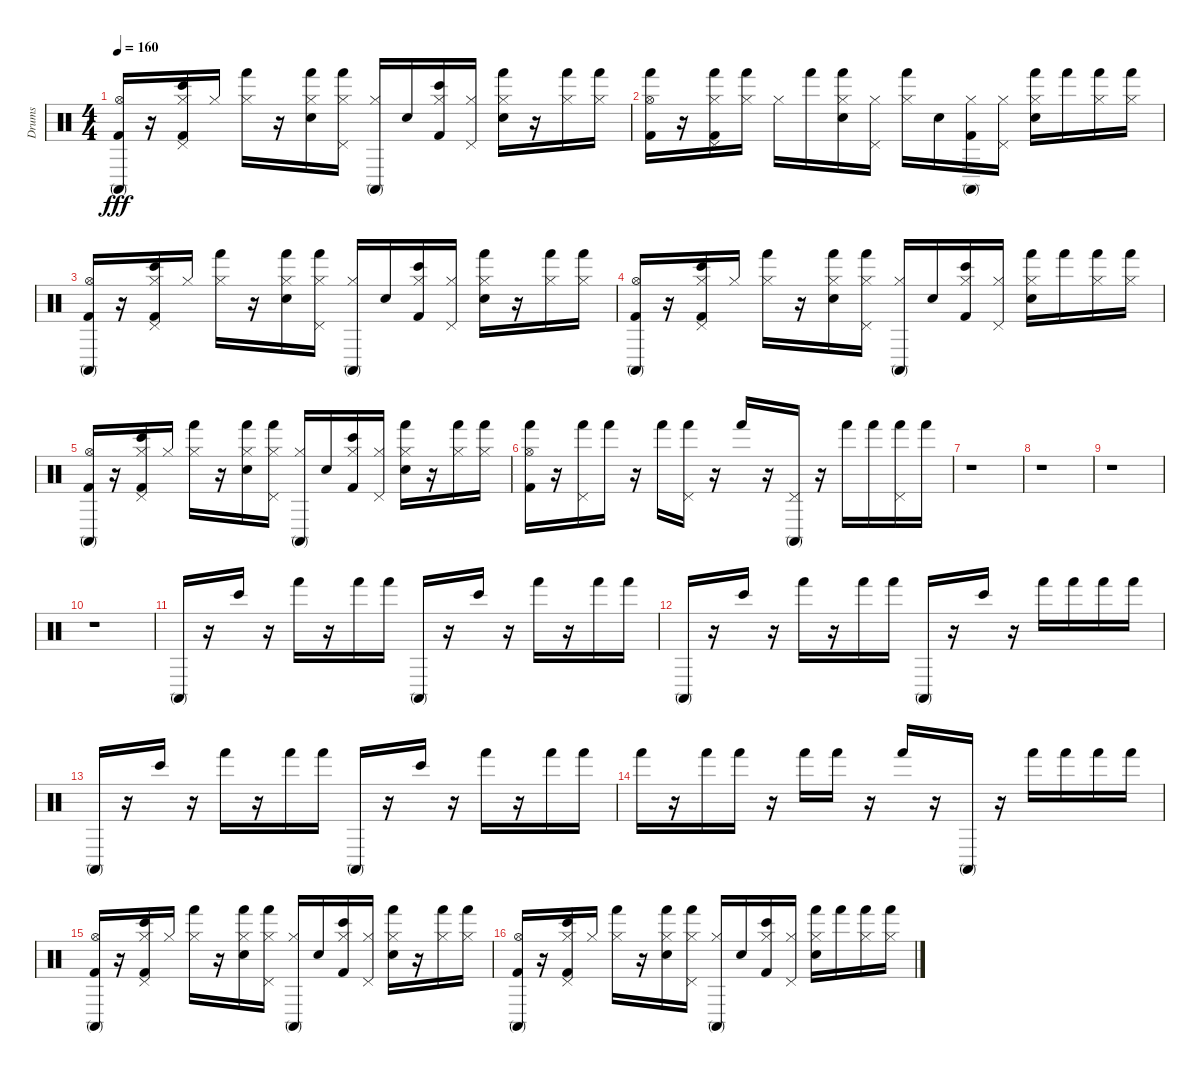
\track ("Drums" "Drums") {instrument percussion}
\staff {score}
\articulation defaults
\ts (4 4)
\tempo 160
\clef neutral
\ks c
("Kick (hit) 2" "Hi-Hat (open)" "Conga high (mute)").16{dy fff} r.16 ("Kick (hit) 2" "Hi-Hat (closed)" "Bongo High (hit)" "Pedal Hi-Hat (hit)").16 "Hi-Hat (closed)".16 ("Hand (hit)" "Hi-Hat (closed)").16 r.16 ("Hi-Hat (closed)" "Electric Snare (hit)" "Hand (hit)").16 ("Hi-Hat (closed)" "Hand (hit)" "Pedal Hi-Hat (hit)").16 ("Hi-Hat (closed)" "Conga high (mute)").16 "Electric Snare (hit)".16 ("Hi-Hat (closed)" "Kick (hit) 2" "Bongo High (hit)").16 ("Hi-Hat (closed)" "Pedal Hi-Hat (hit)").16 ("Hi-Hat (closed)" "Hand (hit)" "Electric Snare (hit)").16 r.16 ("Hand (hit)" "Hi-Hat (closed)").16 ("Hi-Hat (closed)" "Hand (hit)").16 |
("Kick (hit) 2" "Hand (hit)" "Hi-Hat (open)").16 r.16 ("Pedal Hi-Hat (hit)" "Hi-Hat (closed)" "Kick (hit) 2" "Hand (hit)").16 ("Hi-Hat (closed)" "Hand (hit)").16 "Hi-Hat (closed)".16 "Hand (hit)".16 ("Hi-Hat (closed)" "Electric Snare (hit)" "Hand (hit)").16 ("Pedal Hi-Hat (hit)" "Hi-Hat (closed)").16 ("Hi-Hat (closed)" "Hand (hit)").16 "Electric Snare (hit)".16 ("Hi-Hat (closed)" "Kick (hit) 2" "Conga high (mute)").16 ("Pedal Hi-Hat (hit)" "Hi-Hat (closed)").16 ("Hand (hit)" "Electric Snare (hit)" "Hi-Hat (closed)").16 "Hand (hit)".16 ("Hand (hit)" "Hi-Hat (closed)").16 ("Hi-Hat (closed)" "Hand (hit)").16 |
("Hi-Hat (open)" "Conga high (mute)" "Kick (hit) 2").16 r.16 ("Bongo High (hit)" "Hi-Hat (closed)" "Kick (hit) 2" "Pedal Hi-Hat (hit)").16 "Hi-Hat (closed)".16 ("Hand (hit)" "Hi-Hat (closed)").16 r.16 ("Hand (hit)" "Electric Snare (hit)" "Hi-Hat (closed)").16 ("Hi-Hat (closed)" "Hand (hit)" "Pedal Hi-Hat (hit)").16 ("Hi-Hat (closed)" "Conga high (mute)").16 "Electric Snare (hit)".16 ("Kick (hit) 2" "Hi-Hat (closed)" "Bongo High (hit)").16 ("Hi-Hat (closed)" "Pedal Hi-Hat (hit)").16 ("Hi-Hat (closed)" "Hand (hit)" "Electric Snare (hit)").16 r.16 ("Hi-Hat (closed)" "Hand (hit)").16 ("Hi-Hat (closed)" "Hand (hit)").16 |
("Conga high (mute)" "Hi-Hat (open)" "Kick (hit) 2").16 r.16 ("Kick (hit) 2" "Pedal Hi-Hat (hit)" "Bongo High (hit)" "Hi-Hat (closed)").16 "Hi-Hat (closed)".16 ("Hand (hit)" "Hi-Hat (closed)").16 r.16 ("Hand (hit)" "Electric Snare (hit)" "Hi-Hat (closed)").16 ("Pedal Hi-Hat (hit)" "Hand (hit)" "Hi-Hat (closed)").16 ("Hi-Hat (closed)" "Conga high (mute)").16 "Electric Snare (hit)".16 ("Hi-Hat (closed)" "Kick (hit) 2" "Bongo High (hit)").16 ("Pedal Hi-Hat (hit)" "Hi-Hat (closed)").16 ("Electric Snare (hit)" "Hi-Hat (closed)" "Hand (hit)").16 "Hand (hit)".16 ("Hi-Hat (closed)" "Hand (hit)").16 ("Hi-Hat (closed)" "Hand (hit)").16 |
("Hi-Hat (open)" "Kick (hit) 2" "Conga high (mute)").16 r.16 ("Pedal Hi-Hat (hit)" "Kick (hit) 2" "Hi-Hat (closed)" "Bongo High (hit)").16 "Hi-Hat (closed)".16 ("Hi-Hat (closed)" "Hand (hit)").16 r.16 ("Electric Snare (hit)" "Hi-Hat (closed)" "Hand (hit)").16 ("Hand (hit)" "Hi-Hat (closed)" "Pedal Hi-Hat (hit)").16 ("Conga high (mute)" "Hi-Hat (closed)").16 "Electric Snare (hit)".16 ("Bongo High (hit)" "Hi-Hat (closed)" "Kick (hit) 2").16 ("Pedal Hi-Hat (hit)" "Hi-Hat (closed)").16 ("Hand (hit)" "Electric Snare (hit)" "Hi-Hat (closed)").16 r.16 ("Hand (hit)" "Hi-Hat (closed)").16 ("Hand (hit)" "Hi-Hat (closed)").16 |
("Kick (hit) 2" "Hand (hit)" "Hi-Hat (open)").16 r.16 ("Pedal Hi-Hat (hit)" "Hand (hit)").16 "Hand (hit)".16 r.16 "Hand (hit)".16 ("Pedal Hi-Hat (hit)" "Hand (hit)").16 r.16 "Hand (hit)".16 r.16 ("Pedal Hi-Hat (hit)" "Conga high (mute)").16 r.16 "Hand (hit)".16 "Hand (hit)".16 ("Hand (hit)" "Pedal Hi-Hat (hit)").16 "Hand (hit)".16 |
r.1 |
r.1 |
r.1 |
r.1 |
"Conga high (mute)".16 r.16 "Bongo High (hit)".16 r.16 "Hand (hit)".16 r.16 "Hand (hit)".16 "Hand (hit)".16 "Conga high (mute)".16 r.16 "Bongo High (hit)".16 r.16 "Hand (hit)".16 r.16 "Hand (hit)".16 "Hand (hit)".16 |
"Conga high (mute)".16 r.16 "Bongo High (hit)".16 r.16 "Hand (hit)".16 r.16 "Hand (hit)".16 "Hand (hit)".16 "Conga high (mute)".16 r.16 "Bongo High (hit)".16 r.16 "Hand (hit)".16 "Hand (hit)".16 "Hand (hit)".16 "Hand (hit)".16 |
"Conga high (mute)".16 r.16 "Bongo High (hit)".16 r.16 "Hand (hit)".16 r.16 "Hand (hit)".16 "Hand (hit)".16 "Conga high (mute)".16 r.16 "Bongo High (hit)".16 r.16 "Hand (hit)".16 r.16 "Hand (hit)".16 "Hand (hit)".16 |
"Hand (hit)".16 r.16 "Hand (hit)".16 "Hand (hit)".16 r.16 "Hand (hit)".16 "Hand (hit)".16 r.16 "Hand (hit)".16 r.16 "Conga high (mute)".16 r.16 "Hand (hit)".16 "Hand (hit)".16 "Hand (hit)".16 "Hand (hit)".16 |
("Conga high (mute)" "Kick (hit) 2" "Hi-Hat (open)").16 r.16 ("Bongo High (hit)" "Kick (hit) 2" "Pedal Hi-Hat (hit)" "Hi-Hat (closed)").16 "Hi-Hat (closed)".16 ("Hi-Hat (closed)" "Hand (hit)").16 r.16 ("Hand (hit)" "Electric Snare (hit)" "Hi-Hat (closed)").16 ("Pedal Hi-Hat (hit)" "Hand (hit)" "Hi-Hat (closed)").16 ("Hi-Hat (closed)" "Conga high (mute)").16 "Electric Snare (hit)".16 ("Hi-Hat (closed)" "Kick (hit) 2" "Bongo High (hit)").16 ("Pedal Hi-Hat (hit)" "Hi-Hat (closed)").16 ("Electric Snare (hit)" "Hand (hit)" "Hi-Hat (closed)").16 r.16 ("Hand (hit)" "Hi-Hat (closed)").16 ("Hi-Hat (closed)" "Hand (hit)").16 |
("Kick (hit) 2" "Hi-Hat (open)" "Conga high (mute)").16 r.16 ("Kick (hit) 2" "Bongo High (hit)" "Hi-Hat (closed)" "Pedal Hi-Hat (hit)").16 "Hi-Hat (closed)".16 ("Hand (hit)" "Hi-Hat (closed)").16 r.16 ("Electric Snare (hit)" "Hand (hit)" "Hi-Hat (closed)").16 ("Pedal Hi-Hat (hit)" "Hand (hit)" "Hi-Hat (closed)").16 ("Conga high (mute)" "Hi-Hat (closed)").16 "Electric Snare (hit)".16 ("Bongo High (hit)" "Kick (hit) 2" "Hi-Hat (closed)").16 ("Pedal Hi-Hat (hit)" "Hi-Hat (closed)").16 ("Hand (hit)" "Electric Snare (hit)" "Hi-Hat (closed)").16 "Hand (hit)".16 ("Hi-Hat (closed)" "Hand (hit)").16 ("Hi-Hat (closed)" "Hand (hit)").16
